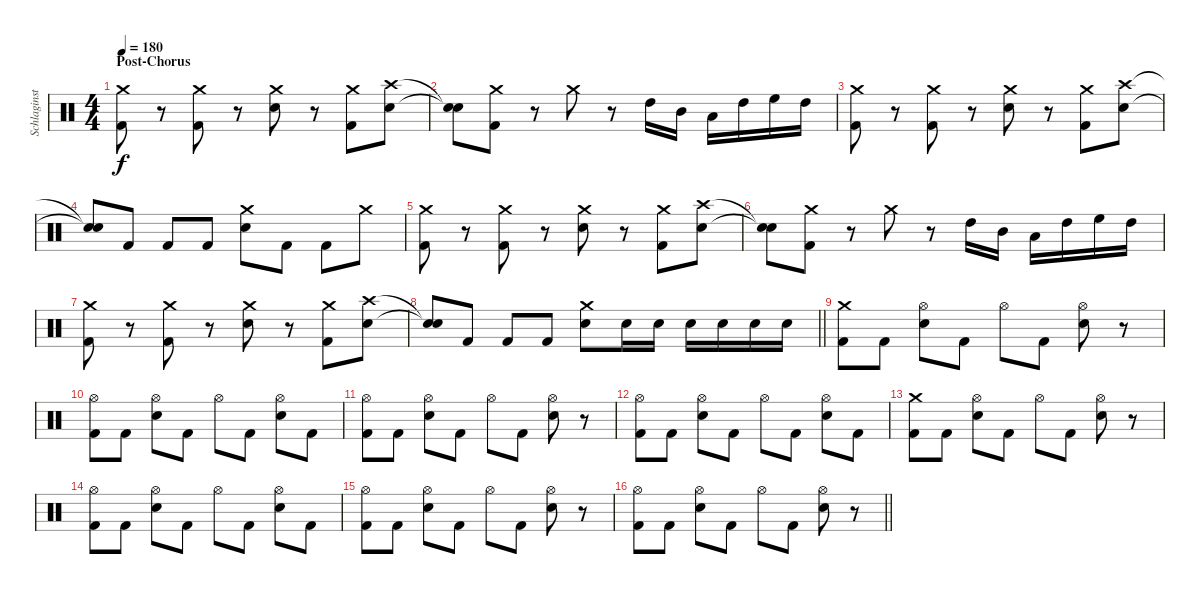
\track ("Schlaginstrumente - Auswahl" "Schlaginst") {instrument percussion}
\staff {score}
\articulation defaults
\ts (4 4)
\section ("" "Post-Chorus")
\tempo 180
\clef neutral
\ks c
("Crash medium (hit)" "Kick (hit) 2").8{dy f} r.8 ("Crash medium (hit)" "Kick (hit) 2").8 r.8 ("Crash medium (hit)" "Electric Snare (hit)").8 r.8 ("Crash medium (hit)" "Kick (hit) 2").8 ("Crash high (hit)" "Electric Snare (hit)").8 |
("Snare (hit)"{t} "Snare (hit)"{t}).8 ("Crash medium (hit)" "Kick (hit) 2").8 r.8 "Crash medium (hit)".8 r.8 "High Tom (hit)".16 "Mid Tom (hit)".16 "Low Tom (hit)".16 "High Tom (hit)".16 "High Floor Tom (hit)".16 "High Tom (hit)".16 |
("Crash medium (hit)" "Kick (hit) 2").8 r.8 ("Crash medium (hit)" "Kick (hit) 2").8 r.8 ("Crash medium (hit)" "Electric Snare (hit)").8 r.8 ("Crash medium (hit)" "Kick (hit) 2").8 ("Crash high (hit)" "Electric Snare (hit)").8 |
("Snare (hit)"{t} "Snare (hit)"{t}).8 "Kick (hit) 2".8 "Kick (hit) 2".8 "Kick (hit) 2".8 ("Crash medium (hit)" "Electric Snare (hit)").8 "Kick (hit) 2".8 "Kick (hit) 2".8 "Crash medium (hit)".8 |
("Crash medium (hit)" "Kick (hit) 2").8 r.8 ("Crash medium (hit)" "Kick (hit) 2").8 r.8 ("Crash medium (hit)" "Electric Snare (hit)").8 r.8 ("Crash medium (hit)" "Kick (hit) 2").8 ("Crash high (hit)" "Electric Snare (hit)").8 |
("Snare (hit)"{t} "Snare (hit)"{t}).8 ("Crash medium (hit)" "Kick (hit) 2").8 r.8 "Crash medium (hit)".8 r.8 "High Tom (hit)".16 "Mid Tom (hit)".16 "Low Tom (hit)".16 "High Tom (hit)".16 "High Floor Tom (hit)".16 "High Tom (hit)".16 |
("Crash medium (hit)" "Kick (hit) 2").8 r.8 ("Crash medium (hit)" "Kick (hit) 2").8 r.8 ("Crash medium (hit)" "Electric Snare (hit)").8 r.8 ("Crash medium (hit)" "Kick (hit) 2").8 ("Crash high (hit)" "Electric Snare (hit)").8 |
\barLineRight lightlight
("Snare (hit)"{t} "Snare (hit)"{t}).8 "Kick (hit) 2".8 "Kick (hit) 2".8 "Kick (hit) 2".8 ("Crash medium (hit)" "Electric Snare (hit)").8 "Electric Snare (hit)".16 "Electric Snare (hit)".16 "Electric Snare (hit)".16 "Electric Snare (hit)".16 "Electric Snare (hit)".16 "Electric Snare (hit)".16 |
("Crash medium (hit)" "Kick (hit) 2").8 "Kick (hit) 2".8 ("Hi-Hat (open)" "Snare (hit) 2").8 "Kick (hit) 2".8 "Hi-Hat (open)".8 "Kick (hit) 2".8 ("Hi-Hat (open)" "Snare (hit) 2").8 r.8 |
("Hi-Hat (open)" "Kick (hit) 2").8 "Kick (hit) 2".8 ("Hi-Hat (open)" "Snare (hit) 2").8 "Kick (hit) 2".8 "Hi-Hat (open)".8 "Kick (hit) 2".8 ("Hi-Hat (open)" "Snare (hit) 2").8 "Kick (hit) 2".8 |
("Hi-Hat (open)" "Kick (hit) 2").8 "Kick (hit) 2".8 ("Hi-Hat (open)" "Snare (hit) 2").8 "Kick (hit) 2".8 "Hi-Hat (open)".8 "Kick (hit) 2".8 ("Hi-Hat (open)" "Snare (hit) 2").8 r.8 |
("Hi-Hat (open)" "Kick (hit) 2").8 "Kick (hit) 2".8 ("Hi-Hat (open)" "Snare (hit) 2").8 "Kick (hit) 2".8 "Hi-Hat (open)".8 "Kick (hit) 2".8 ("Hi-Hat (open)" "Snare (hit) 2").8 "Kick (hit) 2".8 |
("Crash medium (hit)" "Kick (hit) 2").8 "Kick (hit) 2".8 ("Hi-Hat (open)" "Snare (hit) 2").8 "Kick (hit) 2".8 "Hi-Hat (open)".8 "Kick (hit) 2".8 ("Hi-Hat (open)" "Snare (hit) 2").8 r.8 |
("Hi-Hat (open)" "Kick (hit) 2").8 "Kick (hit) 2".8 ("Hi-Hat (open)" "Snare (hit) 2").8 "Kick (hit) 2".8 "Hi-Hat (open)".8 "Kick (hit) 2".8 ("Hi-Hat (open)" "Snare (hit) 2").8 "Kick (hit) 2".8 |
("Hi-Hat (open)" "Kick (hit) 2").8 "Kick (hit) 2".8 ("Hi-Hat (open)" "Snare (hit) 2").8 "Kick (hit) 2".8 "Hi-Hat (open)".8 "Kick (hit) 2".8 ("Hi-Hat (open)" "Snare (hit) 2").8 r.8 |
\barLineRight lightlight
("Hi-Hat (open)" "Kick (hit) 2").8 "Kick (hit) 2".8 ("Hi-Hat (open)" "Snare (hit) 2").8 "Kick (hit) 2".8 "Hi-Hat (open)".8 "Kick (hit) 2".8 ("Hi-Hat (open)" "Snare (hit) 2").8 r.8
